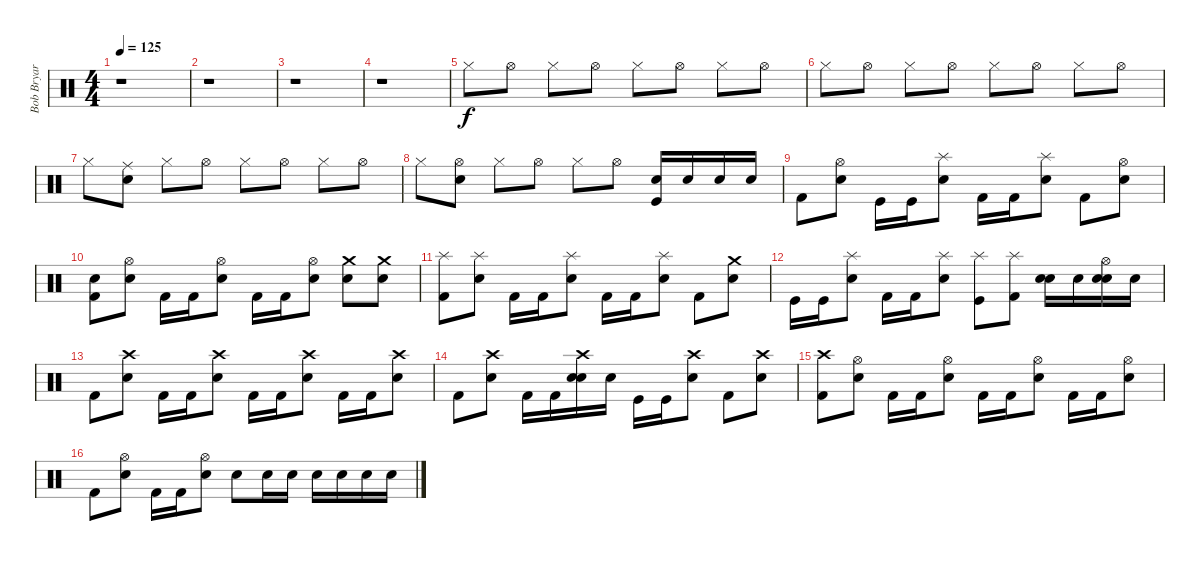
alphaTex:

\track ("Bob Bryar" "Bob Bryar") {instrument percussion}
\staff {score}
\articulation defaults
\ts (4 4)
\tempo 125
\clef neutral
\ks c
r.1{dy f} |
r.1 |
r.1 |
r.1 |
"Hi-Hat (closed)".8 "Hi-Hat (open)".8 "Hi-Hat (closed)".8 "Hi-Hat (open)".8 "Hi-Hat (closed)".8 "Hi-Hat (open)".8 "Hi-Hat (closed)".8 "Hi-Hat (open)".8 |
"Hi-Hat (closed)".8 "Hi-Hat (open)".8 "Hi-Hat (closed)".8 "Hi-Hat (open)".8 "Hi-Hat (closed)".8 "Hi-Hat (open)".8 "Hi-Hat (closed)".8 "Hi-Hat (open)".8 |
"Hi-Hat (closed)".8 ("Snare (hit) 2" "Ride (middle)").8 "Hi-Hat (closed)".8 "Hi-Hat (open)".8 "Hi-Hat (closed)".8 "Hi-Hat (open)".8 "Hi-Hat (closed)".8 "Hi-Hat (open)".8 |
"Hi-Hat (closed)".8 ("Snare (hit) 2" "Hi-Hat (open)").8 "Hi-Hat (closed)".8 "Hi-Hat (open)".8 "Hi-Hat (closed)".8 "Hi-Hat (open)".8 ("Kick (hit)" "Snare (hit) 2").16 "Snare (hit) 2".16 "Snare (hit) 2".16 "Snare (hit) 2".16 |
"Kick (hit) 2".8 ("Hi-Hat (open)" "Snare (hit) 2").8 "Kick (hit)".16 "Kick (hit)".16 ("Splash (hit)" "Snare (hit) 2").8 "Kick (hit) 2".16 "Kick (hit) 2".16 ("Splash (hit)" "Snare (hit) 2").8 "Kick (hit) 2".8 ("Hi-Hat (open)" "Snare (hit) 2").8 |
("Kick (hit) 2" "Electric Snare (hit)").8 ("Hi-Hat (open)" "Snare (hit) 2").8 "Kick (hit) 2".16 "Kick (hit) 2".16 ("Hi-Hat (open)" "Snare (hit) 2").8 "Kick (hit) 2".16 "Kick (hit) 2".16 ("Hi-Hat (open)" "Snare (hit) 2").8 ("Crash medium (hit)" "Snare (hit) 2").8 ("Crash medium (hit)" "Snare (hit) 2").8 |
("Splash (hit)" "Kick (hit) 2").8 ("Splash (hit)" "Snare (hit) 2").8 "Kick (hit) 2".16 "Kick (hit) 2".16 ("Splash (hit)" "Snare (hit) 2").8 "Kick (hit) 2".16 "Kick (hit) 2".16 ("Splash (hit)" "Snare (hit) 2").8 "Kick (hit) 2".8 ("Crash medium (hit)" "Snare (hit) 2").8 |
"Kick (hit)".16 "Kick (hit)".16 ("Splash (hit)" "Snare (hit) 2").8 "Kick (hit) 2".16 "Kick (hit) 2".16 ("Splash (hit)" "Snare (hit) 2").8 ("Splash (hit)" "Kick (hit)").8 ("Splash (hit)" "Kick (hit) 2").8 ("Snare (hit) 2" "Electric Snare (hit)").16 "Snare (hit) 2".16 ("Hi-Hat (open)" "Snare (hit) 2" "Electric Snare (hit)").16 "Snare (hit) 2".16 |
"Kick (hit) 2".8 ("Crash high (hit)" "Snare (hit) 2").8 "Kick (hit) 2".16 "Kick (hit) 2".16 ("Crash high (hit)" "Snare (hit) 2").8 "Kick (hit) 2".16 "Kick (hit) 2".16 ("Crash high (hit)" "Snare (hit) 2").8 "Kick (hit) 2".16 "Kick (hit) 2".16 ("Crash high (hit)" "Snare (hit) 2").8 |
"Kick (hit) 2".8 ("Crash high (hit)" "Electric Snare (hit)").8 "Kick (hit) 2".16 "Kick (hit) 2".16 ("Crash high (hit)" "Electric Snare (hit)" "Snare (hit) 2").16 "Snare (hit) 2".16 "Kick (hit)".16 "Kick (hit)".16 ("Crash high (hit)" "Snare (hit) 2").8 "Kick (hit) 2".8 ("Crash high (hit)" "Snare (hit) 2").8 |
("Crash high (hit)" "Kick (hit) 2").8 ("Snare (hit) 2" "Hi-Hat (open)").8 "Kick (hit) 2".16 "Kick (hit) 2".16 ("Hi-Hat (open)" "Snare (hit) 2").8 "Kick (hit) 2".16 "Kick (hit) 2".16 ("Hi-Hat (open)" "Snare (hit) 2").8 "Kick (hit) 2".16 "Kick (hit) 2".16 ("Hi-Hat (open)" "Snare (hit) 2").8 |
"Kick (hit) 2".8 ("Hi-Hat (open)" "Snare (hit) 2").8 "Kick (hit) 2".16 "Kick (hit) 2".16 ("Hi-Hat (open)" "Snare (hit) 2").8 "Snare (hit) 2".8 "Snare (hit) 2".16 "Snare (hit) 2".16 "Snare (hit) 2".16 "Snare (hit) 2".16 "Snare (hit) 2".16 "Snare (hit) 2".16
